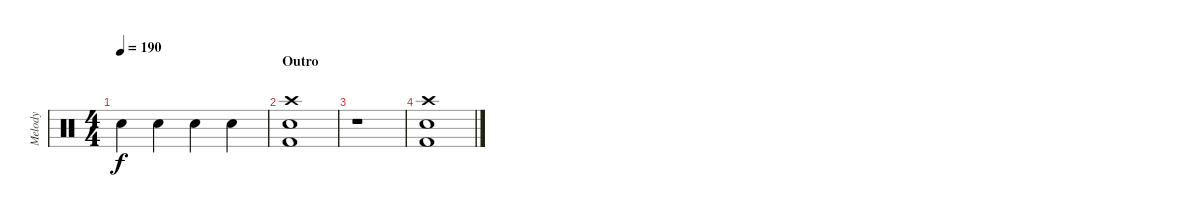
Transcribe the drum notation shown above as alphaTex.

\track ("Melody" "Melody") {instrument percussion}
\staff {score}
\articulation defaults
\ts (4 4)
\tempo 190
\clef neutral
\ks c "Snare (hit) 2".4{dy f} "Snare (hit) 2".4 "Snare (hit) 2".4 "Snare (hit) 2".4
|
\section ("" "Outro")
("Crash high (hit)" "Snare (hit) 2" "Kick (hit) 2").1 |
r.1 |
("Crash high (hit)" "Snare (hit) 2" "Kick (hit) 2").1
